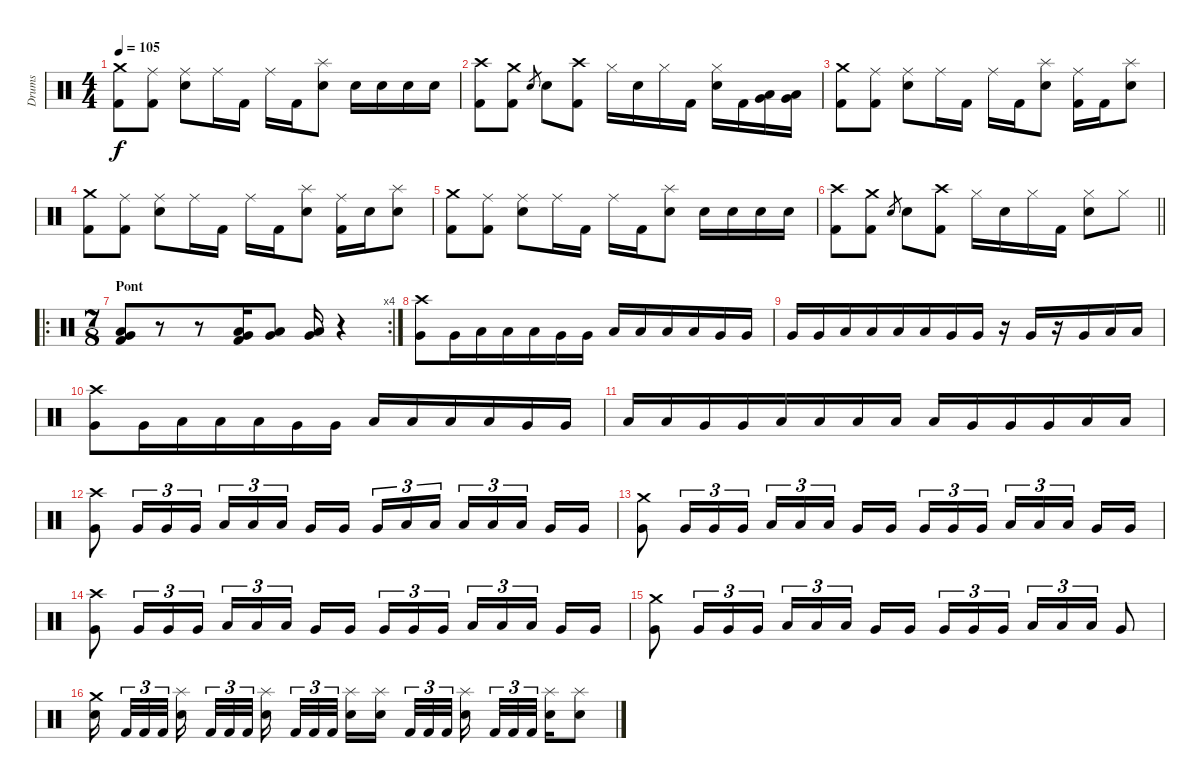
\track ("Drums" "Drums") {instrument percussion}
\staff {score}
\articulation defaults
\ts (4 4)
\tempo 105
\clef neutral
\ks c
("Crash medium (hit)" "Kick (hit) 2").8{dy f} ("Ride (middle)" "Kick (hit) 2").8 ("Ride (middle)" "Electric Snare (hit)").8 "Ride (middle)".16 "Kick (hit) 2".16 "Ride (middle)".16 "Kick (hit) 2".16 ("Splash (hit)" "Electric Snare (hit)").8 "Electric Snare (hit)".16 "Electric Snare (hit)".16 "Electric Snare (hit)".16 "Electric Snare (hit)".16 |
("Crash high (hit)" "Kick (hit) 2").8 ("Crash medium (hit)" "Kick (hit) 2").8 "Electric Snare (hit)".8{gr} "Electric Snare (hit)".8 ("Crash high (hit)" "Kick (hit) 2").8 "Hi-Hat (closed)".16 "Electric Snare (hit)".16 "Hi-Hat (closed)".16 "Kick (hit) 2".16 ("Hi-Hat (closed)" "Electric Snare (hit)").16 "Kick (hit) 2".16 ("Low Tom (hit)" "Very Low Tom (hit)").16 ("Low Tom (hit)" "Very Low Tom (hit)").16 |
("Crash medium (hit)" "Kick (hit) 2").8 ("Ride (middle)" "Kick (hit) 2").8 ("Ride (middle)" "Electric Snare (hit)").8 "Ride (middle)".16 "Kick (hit) 2".16 "Ride (middle)".16 "Kick (hit) 2".16 ("Splash (hit)" "Electric Snare (hit)").8 ("Ride (middle)" "Kick (hit) 2").16 "Kick (hit) 2".16 ("Splash (hit)" "Electric Snare (hit)").8 |
("Crash medium (hit)" "Kick (hit) 2").8 ("Ride (middle)" "Kick (hit) 2").8 ("Ride (middle)" "Electric Snare (hit)").8 "Ride (middle)".16 "Kick (hit) 2".16 "Ride (middle)".16 "Kick (hit) 2".16 ("Splash (hit)" "Electric Snare (hit)").8 ("Ride (middle)" "Kick (hit) 2").16 "Electric Snare (hit)".16 ("Splash (hit)" "Electric Snare (hit)").8 |
("Crash medium (hit)" "Kick (hit) 2").8 ("Ride (middle)" "Kick (hit) 2").8 ("Ride (middle)" "Electric Snare (hit)").8 "Ride (middle)".16 "Kick (hit) 2".16 "Ride (middle)".16 "Kick (hit) 2".16 ("Splash (hit)" "Electric Snare (hit)").8 "Electric Snare (hit)".16 "Electric Snare (hit)".16 "Electric Snare (hit)".16 "Electric Snare (hit)".16 |
\barLineRight lightlight
("Crash high (hit)" "Kick (hit) 2").8 ("Crash medium (hit)" "Kick (hit) 2").8 "Electric Snare (hit)".8{gr} "Electric Snare (hit)".8 ("Crash high (hit)" "Kick (hit) 2").8 "Hi-Hat (closed)".16 "Electric Snare (hit)".16 "Hi-Hat (closed)".16 "Kick (hit) 2".16 ("Hi-Hat (closed)" "Electric Snare (hit)").8 "Hi-Hat (closed)".8 |
\ro
\rc 4
\ts (7 8)
\section ("" "Pont")
("Very Low Tom (hit)" "Low Floor Tom (hit)" "Kick (hit) 2").8 r.8 r.8 ("Low Tom (hit)" "Very Low Tom (hit)" "Kick (hit) 2").16 ("Low Tom (hit)" "Very Low Tom (hit)").8 ("Very Low Tom (hit)" "Low Floor Tom (hit)").16 r.4 |
("Crash high (hit)" "Very Low Tom (hit)").8 "Very Low Tom (hit)".16 "Low Floor Tom (hit)".16 "Low Floor Tom (hit)".16 "Low Floor Tom (hit)".16 "Very Low Tom (hit)".16 "Very Low Tom (hit)".16 "Low Floor Tom (hit)".16 "Low Floor Tom (hit)".16 "Low Floor Tom (hit)".16 "Low Floor Tom (hit)".16 "Very Low Tom (hit)".16 "Very Low Tom (hit)".16 |
"Very Low Tom (hit)".16 "Very Low Tom (hit)".16 "Low Floor Tom (hit)".16 "Low Floor Tom (hit)".16 "Low Floor Tom (hit)".16 "Low Floor Tom (hit)".16 "Very Low Tom (hit)".16 "Very Low Tom (hit)".16 r.16 "Very Low Tom (hit)".16 r.16 "Very Low Tom (hit)".16 "Low Floor Tom (hit)".16 "Low Floor Tom (hit)".16 |
("Crash high (hit)" "Very Low Tom (hit)").8 "Very Low Tom (hit)".16 "Low Floor Tom (hit)".16 "Low Floor Tom (hit)".16 "Low Floor Tom (hit)".16 "Very Low Tom (hit)".16 "Very Low Tom (hit)".16 "Low Floor Tom (hit)".16 "Low Floor Tom (hit)".16 "Low Floor Tom (hit)".16 "Low Floor Tom (hit)".16 "Very Low Tom (hit)".16 "Very Low Tom (hit)".16 |
"Low Tom (hit)".16 "Low Tom (hit)".16 "Very Low Tom (hit)".16 "Very Low Tom (hit)".16 "Low Floor Tom (hit)".16 "Low Floor Tom (hit)".16 "Low Floor Tom (hit)".16 "Low Tom (hit)".16 "Low Tom (hit)".16 "Very Low Tom (hit)".16 "Very Low Tom (hit)".16 "Very Low Tom (hit)".16 "Low Floor Tom (hit)".16 "Low Floor Tom (hit)".16 |
("Crash high (hit)" "Very Low Tom (hit)").8 "Very Low Tom (hit)".16{tu (3 2)} "Very Low Tom (hit)".16{tu (3 2)} "Very Low Tom (hit)".16{tu (3 2)} "Low Floor Tom (hit)".16{tu (3 2)} "Low Floor Tom (hit)".16{tu (3 2)} "Low Floor Tom (hit)".16{tu (3 2)} "Very Low Tom (hit)".16 "Very Low Tom (hit)".16 "Very Low Tom (hit)".16{tu (3 2)} "Low Floor Tom (hit)".16{tu (3 2)} "Low Floor Tom (hit)".16{tu (3 2)} "Low Floor Tom (hit)".16{tu (3 2)} "Low Floor Tom (hit)".16{tu (3 2)} "Low Floor Tom (hit)".16{tu (3 2)} "Very Low Tom (hit)".16 "Very Low Tom (hit)".16 |
("Crash medium (hit)" "Very Low Tom (hit)").8 "Very Low Tom (hit)".16{tu (3 2)} "Very Low Tom (hit)".16{tu (3 2)} "Very Low Tom (hit)".16{tu (3 2)} "Low Floor Tom (hit)".16{tu (3 2)} "Low Floor Tom (hit)".16{tu (3 2)} "Low Floor Tom (hit)".16{tu (3 2)} "Very Low Tom (hit)".16 "Very Low Tom (hit)".16 "Very Low Tom (hit)".16{tu (3 2)} "Very Low Tom (hit)".16{tu (3 2)} "Very Low Tom (hit)".16{tu (3 2)} "Low Floor Tom (hit)".16{tu (3 2)} "Low Floor Tom (hit)".16{tu (3 2)} "Low Floor Tom (hit)".16{tu (3 2)} "Very Low Tom (hit)".16 "Very Low Tom (hit)".16 |
("Crash high (hit)" "Very Low Tom (hit)").8 "Very Low Tom (hit)".16{tu (3 2)} "Very Low Tom (hit)".16{tu (3 2)} "Very Low Tom (hit)".16{tu (3 2)} "Low Floor Tom (hit)".16{tu (3 2)} "Low Floor Tom (hit)".16{tu (3 2)} "Low Floor Tom (hit)".16{tu (3 2)} "Very Low Tom (hit)".16 "Very Low Tom (hit)".16 "Very Low Tom (hit)".16{tu (3 2)} "Very Low Tom (hit)".16{tu (3 2)} "Very Low Tom (hit)".16{tu (3 2)} "Low Floor Tom (hit)".16{tu (3 2)} "Low Floor Tom (hit)".16{tu (3 2)} "Low Floor Tom (hit)".16{tu (3 2)} "Very Low Tom (hit)".16 "Very Low Tom (hit)".16 |
("Crash medium (hit)" "Very Low Tom (hit)").8 "Very Low Tom (hit)".16{tu (3 2)} "Very Low Tom (hit)".16{tu (3 2)} "Very Low Tom (hit)".16{tu (3 2)} "Low Floor Tom (hit)".16{tu (3 2)} "Low Floor Tom (hit)".16{tu (3 2)} "Low Floor Tom (hit)".16{tu (3 2)} "Very Low Tom (hit)".16 "Very Low Tom (hit)".16 "Very Low Tom (hit)".16{tu (3 2)} "Very Low Tom (hit)".16{tu (3 2)} "Very Low Tom (hit)".16{tu (3 2)} "Low Floor Tom (hit)".16{tu (3 2)} "Low Floor Tom (hit)".16{tu (3 2)} "Low Floor Tom (hit)".16{tu (3 2)} "Very Low Tom (hit)".8 |
("Crash medium (hit)" "Electric Snare (hit)").16{beam splitsecondary} "Kick (hit) 2".32{tu (3 2)} "Kick (hit) 2".32{tu (3 2)} "Kick (hit) 2".32{tu (3 2)} ("Splash (hit)" "Electric Snare (hit)").16{beam splitsecondary} "Kick (hit) 2".32{tu (3 2)} "Kick (hit) 2".32{tu (3 2)} "Kick (hit) 2".32{tu (3 2)} ("Splash (hit)" "Electric Snare (hit)").16{beam splitsecondary} "Kick (hit) 2".32{tu (3 2)} "Kick (hit) 2".32{tu (3 2)} "Kick (hit) 2".32{tu (3 2)} ("Splash (hit)" "Electric Snare (hit)").16 ("Splash (hit)" "Electric Snare (hit)").16 "Kick (hit) 2".32{tu (3 2)} "Kick (hit) 2".32{tu (3 2)} "Kick (hit) 2".32{tu (3 2) beam splitsecondary} ("Splash (hit)" "Electric Snare (hit)").16 "Kick (hit) 2".32{tu (3 2)} "Kick (hit) 2".32{tu (3 2)} "Kick (hit) 2".32{tu (3 2) beam splitsecondary} ("Splash (hit)" "Electric Snare (hit)").16 ("Splash (hit)" "Electric Snare (hit)").8
